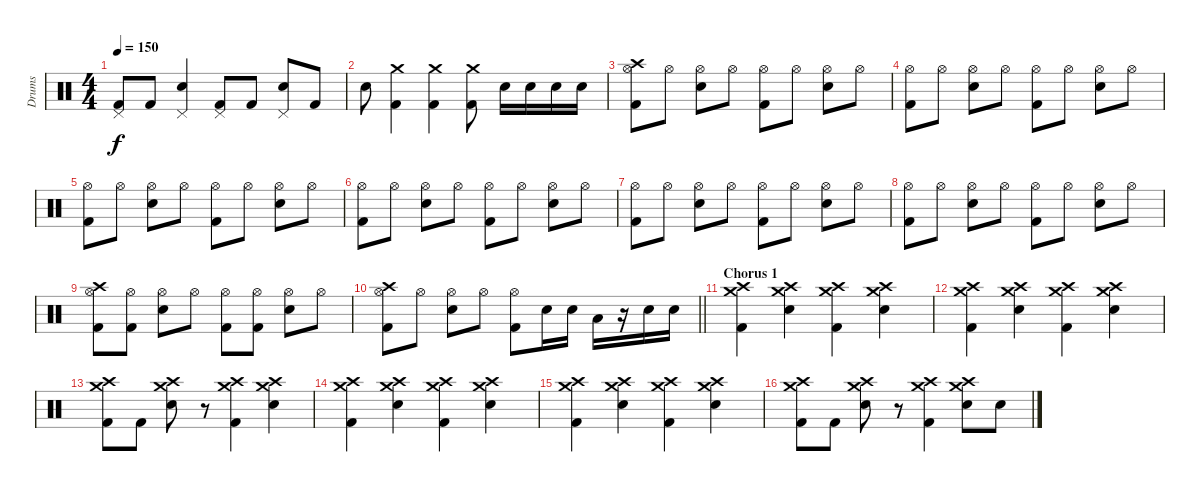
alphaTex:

\track ("Drums" "Drums") {instrument percussion}
\staff {score}
\articulation defaults
\ts (4 4)
\tempo 150
\clef neutral
\ks c
("Pedal Hi-Hat (hit)" "Kick (hit) 2").8{dy f} "Kick (hit) 2".8 ("Pedal Hi-Hat (hit)" "Electric Snare (hit)").4 ("Pedal Hi-Hat (hit)" "Kick (hit) 2").8 "Kick (hit) 2".8 ("Pedal Hi-Hat (hit)" "Electric Snare (hit)").8 "Kick (hit) 2".8 |
"Electric Snare (hit)".8 ("Crash medium (hit)" "Kick (hit) 2").4 ("Crash medium (hit)" "Kick (hit) 2").4 ("Crash medium (hit)" "Kick (hit) 2").8 "Electric Snare (hit)".16 "Electric Snare (hit)".16 "Electric Snare (hit)".16 "Electric Snare (hit)".16 |
("Hi-Hat (open)" "Crash high (hit)" "Kick (hit) 2").8 "Hi-Hat (open)".8 ("Hi-Hat (open)" "Electric Snare (hit)").8 "Hi-Hat (open)".8 ("Hi-Hat (open)" "Kick (hit) 2").8 "Hi-Hat (open)".8 ("Hi-Hat (open)" "Electric Snare (hit)").8 "Hi-Hat (open)".8 |
("Hi-Hat (open)" "Kick (hit) 2").8 "Hi-Hat (open)".8 ("Hi-Hat (open)" "Electric Snare (hit)").8 "Hi-Hat (open)".8 ("Hi-Hat (open)" "Kick (hit) 2").8 "Hi-Hat (open)".8 ("Hi-Hat (open)" "Electric Snare (hit)").8 "Hi-Hat (open)".8 |
("Hi-Hat (open)" "Kick (hit) 2").8 "Hi-Hat (open)".8 ("Hi-Hat (open)" "Electric Snare (hit)").8 "Hi-Hat (open)".8 ("Hi-Hat (open)" "Kick (hit) 2").8 "Hi-Hat (open)".8 ("Hi-Hat (open)" "Electric Snare (hit)").8 "Hi-Hat (open)".8 |
("Hi-Hat (open)" "Kick (hit) 2").8 "Hi-Hat (open)".8 ("Hi-Hat (open)" "Electric Snare (hit)").8 "Hi-Hat (open)".8 ("Hi-Hat (open)" "Kick (hit) 2").8 "Hi-Hat (open)".8 ("Hi-Hat (open)" "Electric Snare (hit)").8 "Hi-Hat (open)".8 |
("Hi-Hat (open)" "Kick (hit) 2").8 "Hi-Hat (open)".8 ("Hi-Hat (open)" "Electric Snare (hit)").8 "Hi-Hat (open)".8 ("Hi-Hat (open)" "Kick (hit) 2").8 "Hi-Hat (open)".8 ("Hi-Hat (open)" "Electric Snare (hit)").8 "Hi-Hat (open)".8 |
("Hi-Hat (open)" "Kick (hit) 2").8 "Hi-Hat (open)".8 ("Hi-Hat (open)" "Electric Snare (hit)").8 "Hi-Hat (open)".8 ("Hi-Hat (open)" "Kick (hit) 2").8 "Hi-Hat (open)".8 ("Hi-Hat (open)" "Electric Snare (hit)").8 "Hi-Hat (open)".8 |
("Hi-Hat (open)" "Crash high (hit)" "Kick (hit) 2").8 ("Hi-Hat (open)" "Kick (hit) 2").8 ("Hi-Hat (open)" "Electric Snare (hit)").8 "Hi-Hat (open)".8 ("Hi-Hat (open)" "Kick (hit) 2").8 ("Hi-Hat (open)" "Kick (hit) 2").8 ("Hi-Hat (open)" "Electric Snare (hit)").8 "Hi-Hat (open)".8 |
\barLineRight lightlight
("Hi-Hat (open)" "Crash high (hit)" "Kick (hit) 2").8 "Hi-Hat (open)".8 ("Hi-Hat (open)" "Electric Snare (hit)").8 "Hi-Hat (open)".8 ("Hi-Hat (open)" "Kick (hit) 2").8 "Electric Snare (hit)".16 "Electric Snare (hit)".16 "Low Tom (hit)".16 r.16 "Electric Snare (hit)".16 "Electric Snare (hit)".16 |
\section ("" "Chorus 1")
("Crash medium (hit)" "Crash high (hit)" "Kick (hit) 2").4 ("Crash medium (hit)" "Crash high (hit)" "Electric Snare (hit)").4 ("Crash medium (hit)" "Crash high (hit)" "Kick (hit) 2").4 ("Crash medium (hit)" "Crash high (hit)" "Electric Snare (hit)").4 |
("Crash medium (hit)" "Crash high (hit)" "Kick (hit) 2").4 ("Crash medium (hit)" "Crash high (hit)" "Electric Snare (hit)").4 ("Crash medium (hit)" "Crash high (hit)" "Kick (hit) 2").4 ("Crash medium (hit)" "Crash high (hit)" "Electric Snare (hit)").4 |
("Crash medium (hit)" "Crash high (hit)" "Kick (hit) 2").8 "Kick (hit) 2".8 ("Crash medium (hit)" "Crash high (hit)" "Electric Snare (hit)").8 r.8 ("Crash medium (hit)" "Crash high (hit)" "Kick (hit) 2").4 ("Crash medium (hit)" "Crash high (hit)" "Electric Snare (hit)").4 |
("Crash medium (hit)" "Crash high (hit)" "Kick (hit) 2").4 ("Crash medium (hit)" "Crash high (hit)" "Electric Snare (hit)").4 ("Crash medium (hit)" "Crash high (hit)" "Kick (hit) 2").4 ("Crash medium (hit)" "Crash high (hit)" "Electric Snare (hit)").4 |
("Crash medium (hit)" "Crash high (hit)" "Kick (hit) 2").4 ("Crash medium (hit)" "Crash high (hit)" "Electric Snare (hit)").4 ("Crash medium (hit)" "Crash high (hit)" "Kick (hit) 2").4 ("Crash medium (hit)" "Crash high (hit)" "Electric Snare (hit)").4 |
("Crash medium (hit)" "Crash high (hit)" "Kick (hit) 2").8 "Kick (hit) 2".8 ("Crash medium (hit)" "Crash high (hit)" "Electric Snare (hit)").8 r.8 ("Crash medium (hit)" "Crash high (hit)" "Kick (hit) 2").4 ("Crash medium (hit)" "Crash high (hit)" "Electric Snare (hit)").8 "Electric Snare (hit)".8
